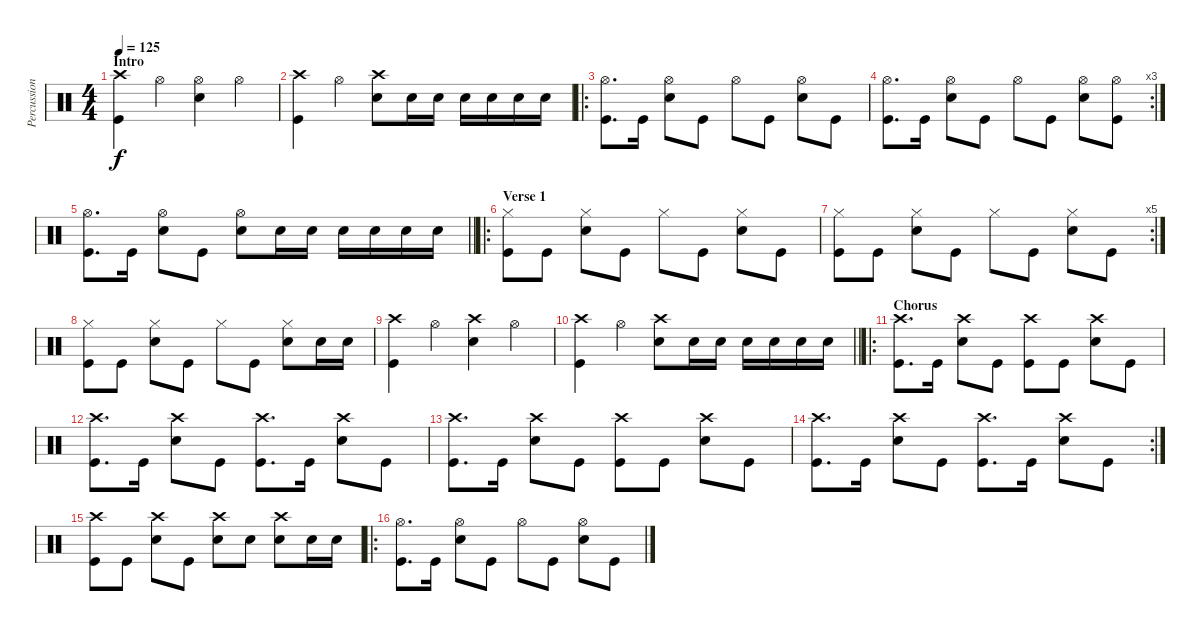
\track ("Percussion" "Percussion") {instrument percussion}
\staff {score}
\articulation defaults
\ts (4 4)
\section ("" "Intro")
\tempo 125
\clef neutral
\ks c
("Crash high (hit)" "Kick (hit)").4{dy f} "Hi-Hat (open)".4 ("Hi-Hat (open)" "Snare (hit) 2").4 "Hi-Hat (open)".4 |
("Crash high (hit)" "Kick (hit)").4 "Hi-Hat (open)".4 ("Crash high (hit)" "Snare (hit) 2").8 "Snare (hit) 2".16 "Snare (hit) 2".16 "Snare (hit) 2".16 "Snare (hit) 2".16 "Snare (hit) 2".16 "Snare (hit) 2".16 |
\ro
("Hi-Hat (open)" "Kick (hit)").8{d} "Kick (hit)".16 ("Hi-Hat (open)" "Snare (hit) 2").8 "Kick (hit)".8 "Hi-Hat (open)".8 "Kick (hit)".8 ("Hi-Hat (open)" "Snare (hit) 2").8 "Kick (hit)".8 |
\rc 3
("Hi-Hat (open)" "Kick (hit)").8{d} "Kick (hit)".16 ("Hi-Hat (open)" "Snare (hit) 2").8 "Kick (hit)".8 "Hi-Hat (open)".8 "Kick (hit)".8 ("Hi-Hat (open)" "Snare (hit) 2").8 ("Hi-Hat (open)" "Kick (hit)").8 |
\barLineRight lightlight
("Hi-Hat (open)" "Kick (hit)").8{d} "Kick (hit)".16 ("Hi-Hat (open)" "Snare (hit) 2").8 "Kick (hit)".8 ("Hi-Hat (open)" "Snare (hit) 2").8 "Snare (hit) 2".16 "Snare (hit) 2".16 "Snare (hit) 2".16 "Snare (hit) 2".16 "Snare (hit) 2".16 "Snare (hit) 2".16 |
\ro
\section ("" "Verse 1")
("Hi-Hat (closed)" "Kick (hit)").8 "Kick (hit)".8 ("Hi-Hat (closed)" "Snare (hit) 2").8 "Kick (hit)".8 "Hi-Hat (closed)".8 "Kick (hit)".8 ("Hi-Hat (closed)" "Snare (hit) 2").8 "Kick (hit)".8 |
\rc 5
("Hi-Hat (closed)" "Kick (hit)").8 "Kick (hit)".8 ("Hi-Hat (closed)" "Snare (hit) 2").8 "Kick (hit)".8 "Hi-Hat (closed)".8 "Kick (hit)".8 ("Hi-Hat (closed)" "Snare (hit) 2").8 "Kick (hit)".8 |
("Hi-Hat (closed)" "Kick (hit)").8 "Kick (hit)".8 ("Hi-Hat (closed)" "Snare (hit) 2").8 "Kick (hit)".8 "Hi-Hat (closed)".8 "Kick (hit)".8 ("Hi-Hat (closed)" "Snare (hit) 2").8 "Snare (hit) 2".16 "Snare (hit) 2".16 |
("Crash high (hit)" "Kick (hit)").4 "Hi-Hat (open)".4 ("Crash high (hit)" "Snare (hit) 2").4 "Hi-Hat (open)".4 |
\barLineRight lightlight
("Crash high (hit)" "Kick (hit)").4 "Hi-Hat (open)".4 ("Crash high (hit)" "Snare (hit) 2").8 "Snare (hit) 2".16 "Snare (hit) 2".16 "Snare (hit) 2".16 "Snare (hit) 2".16 "Snare (hit) 2".16 "Snare (hit) 2".16 |
\ro
\section ("" "Chorus")
("Crash high (hit)" "Kick (hit)").8{d} "Kick (hit)".16 ("Crash high (hit)" "Snare (hit) 2").8 "Kick (hit)".8 ("Crash high (hit)" "Kick (hit)").8 "Kick (hit)".8 ("Crash high (hit)" "Snare (hit) 2").8 "Kick (hit)".8 |
("Crash high (hit)" "Kick (hit)").8{d} "Kick (hit)".16 ("Crash high (hit)" "Snare (hit) 2").8 "Kick (hit)".8 ("Crash high (hit)" "Kick (hit)").8{d} "Kick (hit)".16 ("Crash high (hit)" "Snare (hit) 2").8 "Kick (hit)".8 |
("Crash high (hit)" "Kick (hit)").8{d} "Kick (hit)".16 ("Crash high (hit)" "Snare (hit) 2").8 "Kick (hit)".8 ("Crash high (hit)" "Kick (hit)").8 "Kick (hit)".8 ("Crash high (hit)" "Snare (hit) 2").8 "Kick (hit)".8 |
\rc 2
("Crash high (hit)" "Kick (hit)").8{d} "Kick (hit)".16 ("Crash high (hit)" "Snare (hit) 2").8 "Kick (hit)".8 ("Crash high (hit)" "Kick (hit)").8{d} "Kick (hit)".16 ("Crash high (hit)" "Snare (hit) 2").8 "Kick (hit)".8 |
("Crash high (hit)" "Kick (hit)").8 "Kick (hit)".8 ("Crash high (hit)" "Snare (hit) 2").8 "Kick (hit)".8 ("Crash high (hit)" "Snare (hit) 2").8 "Snare (hit) 2".8 ("Crash high (hit)" "Snare (hit) 2").8 "Snare (hit) 2".16 "Snare (hit) 2".16 |
\ro
("Hi-Hat (open)" "Kick (hit)").8{d} "Kick (hit)".16 ("Hi-Hat (open)" "Snare (hit) 2").8 "Kick (hit)".8 "Hi-Hat (open)".8 "Kick (hit)".8 ("Hi-Hat (open)" "Snare (hit) 2").8 "Kick (hit)".8
